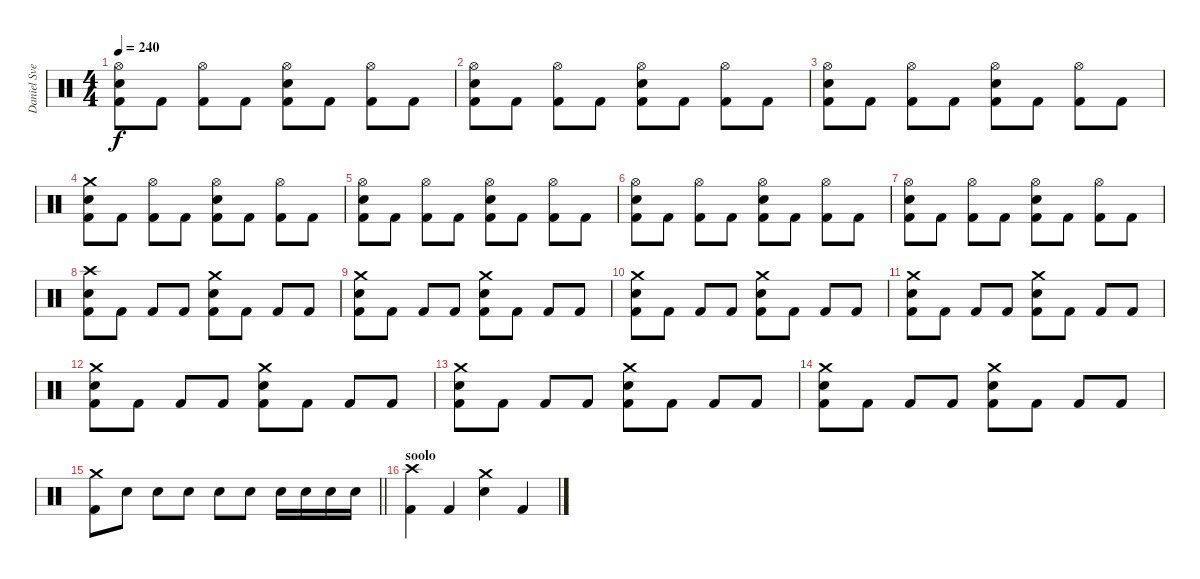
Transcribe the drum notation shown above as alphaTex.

\track ("Daniel Svensson" "Daniel Sve") {instrument percussion}
\staff {score}
\articulation defaults
\ts (4 4)
\tempo 240
\clef neutral
\ks c
("Hi-Hat (open)" "Electric Snare (hit)" "Kick (hit) 2").8{dy f} "Kick (hit) 2".8 ("Hi-Hat (open)" "Kick (hit) 2").8 "Kick (hit) 2".8 ("Hi-Hat (open)" "Electric Snare (hit)" "Kick (hit) 2").8 "Kick (hit) 2".8 ("Hi-Hat (open)" "Kick (hit) 2").8 "Kick (hit) 2".8 |
("Hi-Hat (open)" "Electric Snare (hit)" "Kick (hit) 2").8 "Kick (hit) 2".8 ("Hi-Hat (open)" "Kick (hit) 2").8 "Kick (hit) 2".8 ("Hi-Hat (open)" "Electric Snare (hit)" "Kick (hit) 2").8 "Kick (hit) 2".8 ("Hi-Hat (open)" "Kick (hit) 2").8 "Kick (hit) 2".8 |
("Hi-Hat (open)" "Electric Snare (hit)" "Kick (hit) 2").8 "Kick (hit) 2".8 ("Hi-Hat (open)" "Kick (hit) 2").8 "Kick (hit) 2".8 ("Hi-Hat (open)" "Electric Snare (hit)" "Kick (hit) 2").8 "Kick (hit) 2".8 ("Hi-Hat (open)" "Kick (hit) 2").8 "Kick (hit) 2".8 |
("Crash medium (hit)" "Electric Snare (hit)" "Kick (hit) 2").8 "Kick (hit) 2".8 ("Hi-Hat (open)" "Kick (hit) 2").8 "Kick (hit) 2".8 ("Hi-Hat (open)" "Electric Snare (hit)" "Kick (hit) 2").8 "Kick (hit) 2".8 ("Hi-Hat (open)" "Kick (hit) 2").8 "Kick (hit) 2".8 |
("Hi-Hat (open)" "Electric Snare (hit)" "Kick (hit) 2").8 "Kick (hit) 2".8 ("Hi-Hat (open)" "Kick (hit) 2").8 "Kick (hit) 2".8 ("Hi-Hat (open)" "Electric Snare (hit)" "Kick (hit) 2").8 "Kick (hit) 2".8 ("Hi-Hat (open)" "Kick (hit) 2").8 "Kick (hit) 2".8 |
("Hi-Hat (open)" "Electric Snare (hit)" "Kick (hit) 2").8 "Kick (hit) 2".8 ("Hi-Hat (open)" "Kick (hit) 2").8 "Kick (hit) 2".8 ("Hi-Hat (open)" "Electric Snare (hit)" "Kick (hit) 2").8 "Kick (hit) 2".8 ("Hi-Hat (open)" "Kick (hit) 2").8 "Kick (hit) 2".8 |
("Hi-Hat (open)" "Electric Snare (hit)" "Kick (hit) 2").8 "Kick (hit) 2".8 ("Hi-Hat (open)" "Kick (hit) 2").8 "Kick (hit) 2".8 ("Hi-Hat (open)" "Electric Snare (hit)" "Kick (hit) 2").8 "Kick (hit) 2".8 ("Hi-Hat (open)" "Kick (hit) 2").8 "Kick (hit) 2".8 |
("Crash high (hit)" "Electric Snare (hit)" "Kick (hit) 2").8 "Kick (hit) 2".8 "Kick (hit) 2".8 "Kick (hit) 2".8 ("Crash medium (hit)" "Electric Snare (hit)" "Kick (hit) 2").8 "Kick (hit) 2".8 "Kick (hit) 2".8 "Kick (hit) 2".8 |
("Crash medium (hit)" "Electric Snare (hit)" "Kick (hit) 2").8 "Kick (hit) 2".8 "Kick (hit) 2".8 "Kick (hit) 2".8 ("Crash medium (hit)" "Electric Snare (hit)" "Kick (hit) 2").8 "Kick (hit) 2".8 "Kick (hit) 2".8 "Kick (hit) 2".8 |
("Crash medium (hit)" "Electric Snare (hit)" "Kick (hit) 2").8 "Kick (hit) 2".8 "Kick (hit) 2".8 "Kick (hit) 2".8 ("Crash medium (hit)" "Electric Snare (hit)" "Kick (hit) 2").8 "Kick (hit) 2".8 "Kick (hit) 2".8 "Kick (hit) 2".8 |
("Crash medium (hit)" "Electric Snare (hit)" "Kick (hit) 2").8 "Kick (hit) 2".8 "Kick (hit) 2".8 "Kick (hit) 2".8 ("Crash medium (hit)" "Electric Snare (hit)" "Kick (hit) 2").8 "Kick (hit) 2".8 "Kick (hit) 2".8 "Kick (hit) 2".8 |
("Crash medium (hit)" "Electric Snare (hit)" "Kick (hit) 2").8 "Kick (hit) 2".8 "Kick (hit) 2".8 "Kick (hit) 2".8 ("Crash medium (hit)" "Electric Snare (hit)" "Kick (hit) 2").8 "Kick (hit) 2".8 "Kick (hit) 2".8 "Kick (hit) 2".8 |
("Crash medium (hit)" "Electric Snare (hit)" "Kick (hit) 2").8 "Kick (hit) 2".8 "Kick (hit) 2".8 "Kick (hit) 2".8 ("Crash medium (hit)" "Electric Snare (hit)" "Kick (hit) 2").8 "Kick (hit) 2".8 "Kick (hit) 2".8 "Kick (hit) 2".8 |
("Crash medium (hit)" "Electric Snare (hit)" "Kick (hit) 2").8 "Kick (hit) 2".8 "Kick (hit) 2".8 "Kick (hit) 2".8 ("Crash medium (hit)" "Electric Snare (hit)" "Kick (hit) 2").8 "Kick (hit) 2".8 "Kick (hit) 2".8 "Kick (hit) 2".8 |
\barLineRight lightlight
("Crash medium (hit)" "Kick (hit) 2").8 "Electric Snare (hit)".8 "Electric Snare (hit)".8 "Electric Snare (hit)".8 "Electric Snare (hit)".8 "Electric Snare (hit)".8 "Electric Snare (hit)".16 "Electric Snare (hit)".16 "Electric Snare (hit)".16 "Electric Snare (hit)".16 |
\section ("" "soolo")
("Crash high (hit)" "Kick (hit) 2").4 "Kick (hit) 2".4 ("Crash medium (hit)" "Electric Snare (hit)").4 "Kick (hit) 2".4
